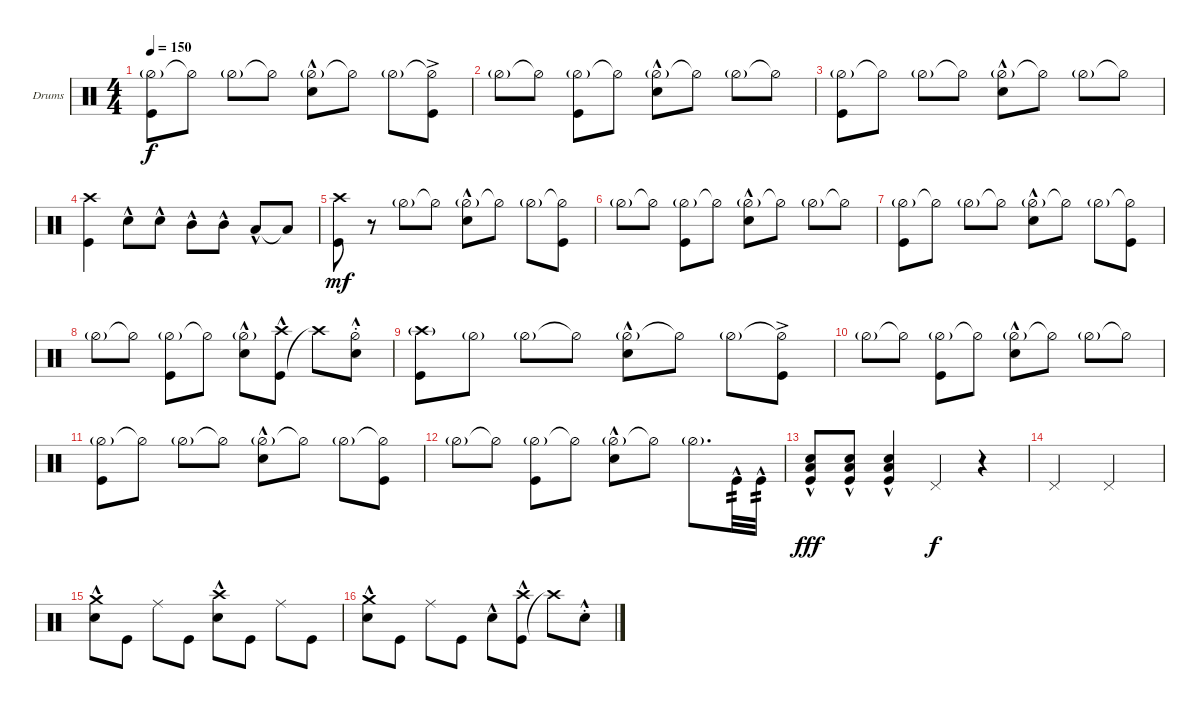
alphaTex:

\bracketExtendMode groupsimilarinstruments
\firstSystemTrackNameOrientation horizontal
\otherSystemsTrackNameOrientation horizontal
\track ("Drumkit" "Drums") {instrument percussion}
\staff {score}
\articulation defaults
\ts (4 4)
\tempo 150
\clef neutral
\ks c
("Hi-Hat (half)"{g} "Kick (hit)").8{dy f} "Hi-Hat (half)"{t}.8 "Hi-Hat (half)"{g}.8 "Hi-Hat (half)"{t}.8 ("Hi-Hat (half)"{g} "Snare (hit) 2"{hac}).8 "Hi-Hat (half)"{t}.8 "Hi-Hat (half)"{g}.8 ("Hi-Hat (half)"{t} "Kick (hit)"{ac}).8 |
"Hi-Hat (half)"{g}.8 "Hi-Hat (half)"{t}.8 ("Hi-Hat (half)"{g} "Kick (hit)").8 "Hi-Hat (half)"{t}.8 ("Hi-Hat (half)"{g} "Snare (hit) 2"{hac}).8 "Hi-Hat (half)"{t}.8 "Hi-Hat (half)"{g}.8 "Hi-Hat (half)"{t}.8 |
("Hi-Hat (half)"{g} "Kick (hit)").8 "Hi-Hat (half)"{t}.8 "Hi-Hat (half)"{g}.8 "Hi-Hat (half)"{t}.8 ("Hi-Hat (half)"{g} "Snare (hit) 2"{hac}).8 "Hi-Hat (half)"{t}.8 "Hi-Hat (half)"{g}.8 "Hi-Hat (half)"{t}.8 |
("Kick (hit)" "Crash high (hit)").4 "Snare (hit) 2"{hac}.8 "Snare (hit) 2"{hac}.8 "Mid Tom (hit)"{hac}.8 "Mid Tom (hit)"{hac}.8 "Low Tom (hit)"{hac}.8 "Low Tom (hit)"{t}.8 |
("Kick (hit)" "Crash high (hit)").8{dy mf} r.8 "Hi-Hat (half)"{g}.8 "Hi-Hat (half)"{t}.8 ("Hi-Hat (half)"{g} "Snare (hit) 2"{hac}).8 "Hi-Hat (half)"{t}.8 "Hi-Hat (half)"{g}.8 ("Hi-Hat (half)"{t} "Kick (hit)").8 |
"Hi-Hat (half)"{g}.8 "Hi-Hat (half)"{t}.8 ("Hi-Hat (half)"{g} "Kick (hit)").8 "Hi-Hat (half)"{t}.8 ("Hi-Hat (half)"{g} "Snare (hit) 2"{hac}).8 "Hi-Hat (half)"{t}.8 "Hi-Hat (half)"{g}.8 "Hi-Hat (half)"{t}.8 |
("Hi-Hat (half)"{g} "Kick (hit)").8 "Hi-Hat (half)"{t}.8 "Hi-Hat (half)"{g}.8 "Hi-Hat (half)"{t}.8 ("Hi-Hat (half)"{g} "Snare (hit) 2"{hac}).8 "Hi-Hat (half)"{t}.8 "Hi-Hat (half)"{g}.8 ("Hi-Hat (half)"{t} "Kick (hit)").8 |
"Hi-Hat (half)"{g}.8 "Hi-Hat (half)"{t}.8 ("Hi-Hat (half)"{g} "Kick (hit)").8 "Hi-Hat (half)"{t}.8 ("Hi-Hat (half)"{g} "Snare (hit) 2"{hac}).8 ("Kick (hit)" "Crash high (hit)"{hac}).8 "Crash high (hit)"{t}.8 ("Hi-Hat (half)" "Snare (hit) 2"{hac st}).8 |
("Kick (hit)" "Crash high (hit)"{g}).8 "Hi-Hat (half)"{g}.8 "Hi-Hat (half)"{g}.8 "Hi-Hat (half)"{t}.8 ("Hi-Hat (half)"{g} "Snare (hit) 2"{hac}).8 "Hi-Hat (half)"{t}.8 "Hi-Hat (half)"{g}.8 ("Hi-Hat (half)"{t} "Kick (hit)"{ac}).8 |
"Hi-Hat (half)"{g}.8 "Hi-Hat (half)"{t}.8 ("Hi-Hat (half)"{g} "Kick (hit)").8 "Hi-Hat (half)"{t}.8 ("Hi-Hat (half)"{g} "Snare (hit) 2"{hac}).8 "Hi-Hat (half)"{t}.8 "Hi-Hat (half)"{g}.8 "Hi-Hat (half)"{t}.8 |
("Hi-Hat (half)"{g} "Kick (hit)").8 "Hi-Hat (half)"{t}.8 "Hi-Hat (half)"{g}.8 "Hi-Hat (half)"{t}.8 ("Hi-Hat (half)"{g} "Snare (hit) 2"{hac}).8 "Hi-Hat (half)"{t}.8 "Hi-Hat (half)"{g}.8 ("Hi-Hat (half)"{t} "Kick (hit)").8 |
"Hi-Hat (half)"{g}.8 "Hi-Hat (half)"{t}.8 ("Hi-Hat (half)"{g} "Kick (hit)").8 "Hi-Hat (half)"{t}.8 ("Hi-Hat (half)"{g} "Snare (hit) 2"{hac}).8 "Hi-Hat (half)"{t}.8 "Hi-Hat (half)"{g}.8{d} "Kick (hit)"{hac}.32{tp 2} "Kick (hit)"{hac}.32{tp 2} |
("Snare (hit) 2"{hac} "Kick (hit)"{hac} "Low Tom (hit)"{hac}).8{dy fff} ("Snare (hit) 2"{hac} "Kick (hit)"{hac} "Low Tom (hit)"{hac}).8 ("Snare (hit) 2"{hac} "Kick (hit)"{hac} "Low Tom (hit)"{hac}).4 "Pedal Hi-Hat (hit)".4{dy f} r.4 |
"Pedal Hi-Hat (hit)".2 "Pedal Hi-Hat (hit)".2 |
("Snare (hit) 2"{hac} "Crash medium (hit)").8 "Kick (hit)".8 "Ride (middle)".8 "Kick (hit)".8 ("Snare (hit) 2"{hac} "Crash high (hit)").8 "Kick (hit)".8 "Ride (middle)".8 "Kick (hit)".8 |
("Snare (hit) 2"{hac} "Crash medium (hit)").8 "Kick (hit)".8 "Ride (middle)".8 "Kick (hit)".8 "Snare (hit) 2"{hac}.8 ("Kick (hit)" "Crash high (hit)"{hac}).8 "Crash high (hit)"{t}.8 "Snare (hit) 2"{hac st}.8
